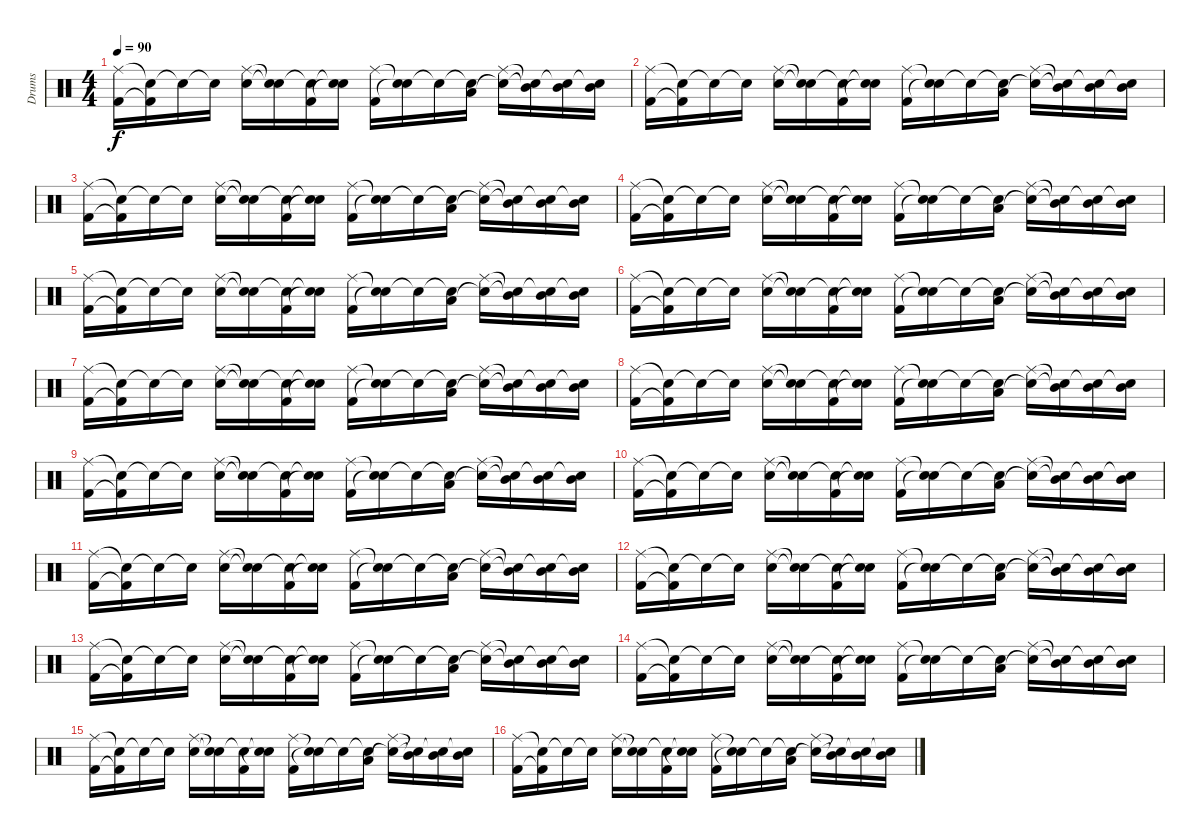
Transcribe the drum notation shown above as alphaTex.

\track ("Drums" "Drums") {instrument percussion}
\staff {score}
\articulation defaults
\ts (4 4)
\tempo 90
\clef neutral
\ks c
("Ride (middle)" "Kick (hit) 2").16{dy f} ("Snare (hit)"{t} "Kick (hit) 2"{t}).16 "Snare (hit)"{t}.16 "Snare (hit)"{t}.16 ("Ride (middle)" "Snare (hit) 2").16 ("Snare (hit)"{t} "Snare (hit)"{t}).16 ("Snare (hit)"{t} "Kick (hit) 2").16 ("Snare (hit)"{t} "Snare (hit)"{t}).16 ("Ride (middle)" "Kick (hit) 2").16 ("Snare (hit)"{t} "Snare (hit)"{t}).16 "Snare (hit)"{t}.16 ("Snare (hit)"{t} "Low Tom (hit)").16 ("Ride (middle)" "Snare (hit)"{t}).16 ("Snare (hit)"{t} "Mid Tom (hit)"{t}).16 ("Snare (hit)"{t} "Mid Tom (hit)").16 ("Snare (hit)"{t} "Mid Tom (hit)").16 |
("Ride (middle)" "Kick (hit) 2").16 ("Snare (hit)"{t} "Kick (hit) 2"{t}).16 "Snare (hit)"{t}.16 "Snare (hit)"{t}.16 ("Ride (middle)" "Snare (hit) 2").16 ("Snare (hit)"{t} "Snare (hit)"{t}).16 ("Snare (hit)"{t} "Kick (hit) 2").16 ("Snare (hit)"{t} "Snare (hit)"{t}).16 ("Ride (middle)" "Kick (hit) 2").16 ("Snare (hit)"{t} "Snare (hit)"{t}).16 "Snare (hit)"{t}.16 ("Snare (hit)"{t} "Low Tom (hit)").16 ("Ride (middle)" "Snare (hit)"{t}).16 ("Snare (hit)"{t} "Mid Tom (hit)"{t}).16 ("Snare (hit)"{t} "Mid Tom (hit)").16 ("Snare (hit)"{t} "Mid Tom (hit)").16 |
("Ride (middle)" "Kick (hit) 2").16 ("Snare (hit)"{t} "Kick (hit) 2"{t}).16 "Snare (hit)"{t}.16 "Snare (hit)"{t}.16 ("Ride (middle)" "Snare (hit) 2").16 ("Snare (hit)"{t} "Snare (hit)"{t}).16 ("Snare (hit)"{t} "Kick (hit) 2").16 ("Snare (hit)"{t} "Snare (hit)"{t}).16 ("Ride (middle)" "Kick (hit) 2").16 ("Snare (hit)"{t} "Snare (hit)"{t}).16 "Snare (hit)"{t}.16 ("Snare (hit)"{t} "Low Tom (hit)").16 ("Ride (middle)" "Snare (hit)"{t}).16 ("Snare (hit)"{t} "Mid Tom (hit)"{t}).16 ("Snare (hit)"{t} "Mid Tom (hit)").16 ("Snare (hit)"{t} "Mid Tom (hit)").16 |
("Ride (middle)" "Kick (hit) 2").16 ("Snare (hit)"{t} "Kick (hit) 2"{t}).16 "Snare (hit)"{t}.16 "Snare (hit)"{t}.16 ("Ride (middle)" "Snare (hit) 2").16 ("Snare (hit)"{t} "Snare (hit)"{t}).16 ("Snare (hit)"{t} "Kick (hit) 2").16 ("Snare (hit)"{t} "Snare (hit)"{t}).16 ("Ride (middle)" "Kick (hit) 2").16 ("Snare (hit)"{t} "Snare (hit)"{t}).16 "Snare (hit)"{t}.16 ("Snare (hit)"{t} "Low Tom (hit)").16 ("Ride (middle)" "Snare (hit)"{t}).16 ("Snare (hit)"{t} "Mid Tom (hit)"{t}).16 ("Snare (hit)"{t} "Mid Tom (hit)").16 ("Snare (hit)"{t} "Mid Tom (hit)").16 |
("Ride (middle)" "Kick (hit) 2").16 ("Snare (hit)"{t} "Kick (hit) 2"{t}).16 "Snare (hit)"{t}.16 "Snare (hit)"{t}.16 ("Ride (middle)" "Snare (hit) 2").16 ("Snare (hit)"{t} "Snare (hit)"{t}).16 ("Snare (hit)"{t} "Kick (hit) 2").16 ("Snare (hit)"{t} "Snare (hit)"{t}).16 ("Ride (middle)" "Kick (hit) 2").16 ("Snare (hit)"{t} "Snare (hit)"{t}).16 "Snare (hit)"{t}.16 ("Snare (hit)"{t} "Low Tom (hit)").16 ("Ride (middle)" "Snare (hit)"{t}).16 ("Snare (hit)"{t} "Mid Tom (hit)"{t}).16 ("Snare (hit)"{t} "Mid Tom (hit)").16 ("Snare (hit)"{t} "Mid Tom (hit)").16 |
("Ride (middle)" "Kick (hit) 2").16 ("Snare (hit)"{t} "Kick (hit) 2"{t}).16 "Snare (hit)"{t}.16 "Snare (hit)"{t}.16 ("Ride (middle)" "Snare (hit) 2").16 ("Snare (hit)"{t} "Snare (hit)"{t}).16 ("Snare (hit)"{t} "Kick (hit) 2").16 ("Snare (hit)"{t} "Snare (hit)"{t}).16 ("Ride (middle)" "Kick (hit) 2").16 ("Snare (hit)"{t} "Snare (hit)"{t}).16 "Snare (hit)"{t}.16 ("Snare (hit)"{t} "Low Tom (hit)").16 ("Ride (middle)" "Snare (hit)"{t}).16 ("Snare (hit)"{t} "Mid Tom (hit)"{t}).16 ("Snare (hit)"{t} "Mid Tom (hit)").16 ("Snare (hit)"{t} "Mid Tom (hit)").16 |
("Ride (middle)" "Kick (hit) 2").16 ("Snare (hit)"{t} "Kick (hit) 2"{t}).16 "Snare (hit)"{t}.16 "Snare (hit)"{t}.16 ("Ride (middle)" "Snare (hit) 2").16 ("Snare (hit)"{t} "Snare (hit)"{t}).16 ("Snare (hit)"{t} "Kick (hit) 2").16 ("Snare (hit)"{t} "Snare (hit)"{t}).16 ("Ride (middle)" "Kick (hit) 2").16 ("Snare (hit)"{t} "Snare (hit)"{t}).16 "Snare (hit)"{t}.16 ("Snare (hit)"{t} "Low Tom (hit)").16 ("Ride (middle)" "Snare (hit)"{t}).16 ("Snare (hit)"{t} "Mid Tom (hit)"{t}).16 ("Snare (hit)"{t} "Mid Tom (hit)").16 ("Snare (hit)"{t} "Mid Tom (hit)").16 |
("Ride (middle)" "Kick (hit) 2").16 ("Snare (hit)"{t} "Kick (hit) 2"{t}).16 "Snare (hit)"{t}.16 "Snare (hit)"{t}.16 ("Ride (middle)" "Snare (hit) 2").16 ("Snare (hit)"{t} "Snare (hit)"{t}).16 ("Snare (hit)"{t} "Kick (hit) 2").16 ("Snare (hit)"{t} "Snare (hit)"{t}).16 ("Ride (middle)" "Kick (hit) 2").16 ("Snare (hit)"{t} "Snare (hit)"{t}).16 "Snare (hit)"{t}.16 ("Snare (hit)"{t} "Low Tom (hit)").16 ("Ride (middle)" "Snare (hit)"{t}).16 ("Snare (hit)"{t} "Mid Tom (hit)"{t}).16 ("Snare (hit)"{t} "Mid Tom (hit)").16 ("Snare (hit)"{t} "Mid Tom (hit)").16 |
("Ride (middle)" "Kick (hit) 2").16 ("Snare (hit)"{t} "Kick (hit) 2"{t}).16 "Snare (hit)"{t}.16 "Snare (hit)"{t}.16 ("Ride (middle)" "Snare (hit) 2").16 ("Snare (hit)"{t} "Snare (hit)"{t}).16 ("Snare (hit)"{t} "Kick (hit) 2").16 ("Snare (hit)"{t} "Snare (hit)"{t}).16 ("Ride (middle)" "Kick (hit) 2").16 ("Snare (hit)"{t} "Snare (hit)"{t}).16 "Snare (hit)"{t}.16 ("Snare (hit)"{t} "Low Tom (hit)").16 ("Ride (middle)" "Snare (hit)"{t}).16 ("Snare (hit)"{t} "Mid Tom (hit)"{t}).16 ("Snare (hit)"{t} "Mid Tom (hit)").16 ("Snare (hit)"{t} "Mid Tom (hit)").16 |
("Ride (middle)" "Kick (hit) 2").16 ("Snare (hit)"{t} "Kick (hit) 2"{t}).16 "Snare (hit)"{t}.16 "Snare (hit)"{t}.16 ("Ride (middle)" "Snare (hit) 2").16 ("Snare (hit)"{t} "Snare (hit)"{t}).16 ("Snare (hit)"{t} "Kick (hit) 2").16 ("Snare (hit)"{t} "Snare (hit)"{t}).16 ("Ride (middle)" "Kick (hit) 2").16 ("Snare (hit)"{t} "Snare (hit)"{t}).16 "Snare (hit)"{t}.16 ("Snare (hit)"{t} "Low Tom (hit)").16 ("Ride (middle)" "Snare (hit)"{t}).16 ("Snare (hit)"{t} "Mid Tom (hit)"{t}).16 ("Snare (hit)"{t} "Mid Tom (hit)").16 ("Snare (hit)"{t} "Mid Tom (hit)").16 |
("Ride (middle)" "Kick (hit) 2").16 ("Snare (hit)"{t} "Kick (hit) 2"{t}).16 "Snare (hit)"{t}.16 "Snare (hit)"{t}.16 ("Ride (middle)" "Snare (hit) 2").16 ("Snare (hit)"{t} "Snare (hit)"{t}).16 ("Snare (hit)"{t} "Kick (hit) 2").16 ("Snare (hit)"{t} "Snare (hit)"{t}).16 ("Ride (middle)" "Kick (hit) 2").16 ("Snare (hit)"{t} "Snare (hit)"{t}).16 "Snare (hit)"{t}.16 ("Snare (hit)"{t} "Low Tom (hit)").16 ("Ride (middle)" "Snare (hit)"{t}).16 ("Snare (hit)"{t} "Mid Tom (hit)"{t}).16 ("Snare (hit)"{t} "Mid Tom (hit)").16 ("Snare (hit)"{t} "Mid Tom (hit)").16 |
("Ride (middle)" "Kick (hit) 2").16 ("Snare (hit)"{t} "Kick (hit) 2"{t}).16 "Snare (hit)"{t}.16 "Snare (hit)"{t}.16 ("Ride (middle)" "Snare (hit) 2").16 ("Snare (hit)"{t} "Snare (hit)"{t}).16 ("Snare (hit)"{t} "Kick (hit) 2").16 ("Snare (hit)"{t} "Snare (hit)"{t}).16 ("Ride (middle)" "Kick (hit) 2").16 ("Snare (hit)"{t} "Snare (hit)"{t}).16 "Snare (hit)"{t}.16 ("Snare (hit)"{t} "Low Tom (hit)").16 ("Ride (middle)" "Snare (hit)"{t}).16 ("Snare (hit)"{t} "Mid Tom (hit)"{t}).16 ("Snare (hit)"{t} "Mid Tom (hit)").16 ("Snare (hit)"{t} "Mid Tom (hit)").16 |
("Ride (middle)" "Kick (hit) 2").16 ("Snare (hit)"{t} "Kick (hit) 2"{t}).16 "Snare (hit)"{t}.16 "Snare (hit)"{t}.16 ("Ride (middle)" "Snare (hit) 2").16 ("Snare (hit)"{t} "Snare (hit)"{t}).16 ("Snare (hit)"{t} "Kick (hit) 2").16 ("Snare (hit)"{t} "Snare (hit)"{t}).16 ("Ride (middle)" "Kick (hit) 2").16 ("Snare (hit)"{t} "Snare (hit)"{t}).16 "Snare (hit)"{t}.16 ("Snare (hit)"{t} "Low Tom (hit)").16 ("Ride (middle)" "Snare (hit)"{t}).16 ("Snare (hit)"{t} "Mid Tom (hit)"{t}).16 ("Snare (hit)"{t} "Mid Tom (hit)").16 ("Snare (hit)"{t} "Mid Tom (hit)").16 |
("Ride (middle)" "Kick (hit) 2").16 ("Snare (hit)"{t} "Kick (hit) 2"{t}).16 "Snare (hit)"{t}.16 "Snare (hit)"{t}.16 ("Ride (middle)" "Snare (hit) 2").16 ("Snare (hit)"{t} "Snare (hit)"{t}).16 ("Snare (hit)"{t} "Kick (hit) 2").16 ("Snare (hit)"{t} "Snare (hit)"{t}).16 ("Ride (middle)" "Kick (hit) 2").16 ("Snare (hit)"{t} "Snare (hit)"{t}).16 "Snare (hit)"{t}.16 ("Snare (hit)"{t} "Low Tom (hit)").16 ("Ride (middle)" "Snare (hit)"{t}).16 ("Snare (hit)"{t} "Mid Tom (hit)"{t}).16 ("Snare (hit)"{t} "Mid Tom (hit)").16 ("Snare (hit)"{t} "Mid Tom (hit)").16 |
("Ride (middle)" "Kick (hit) 2").16 ("Snare (hit)"{t} "Kick (hit) 2"{t}).16 "Snare (hit)"{t}.16 "Snare (hit)"{t}.16 ("Ride (middle)" "Snare (hit) 2").16 ("Snare (hit)"{t} "Snare (hit)"{t}).16 ("Snare (hit)"{t} "Kick (hit) 2").16 ("Snare (hit)"{t} "Snare (hit)"{t}).16 ("Ride (middle)" "Kick (hit) 2").16 ("Snare (hit)"{t} "Snare (hit)"{t}).16 "Snare (hit)"{t}.16 ("Snare (hit)"{t} "Low Tom (hit)").16 ("Ride (middle)" "Snare (hit)"{t}).16 ("Snare (hit)"{t} "Mid Tom (hit)"{t}).16 ("Snare (hit)"{t} "Mid Tom (hit)").16 ("Snare (hit)"{t} "Mid Tom (hit)").16 |
("Ride (middle)" "Kick (hit) 2").16 ("Snare (hit)"{t} "Kick (hit) 2"{t}).16 "Snare (hit)"{t}.16 "Snare (hit)"{t}.16 ("Ride (middle)" "Snare (hit) 2").16 ("Snare (hit)"{t} "Snare (hit)"{t}).16 ("Snare (hit)"{t} "Kick (hit) 2").16 ("Snare (hit)"{t} "Snare (hit)"{t}).16 ("Ride (middle)" "Kick (hit) 2").16 ("Snare (hit)"{t} "Snare (hit)"{t}).16 "Snare (hit)"{t}.16 ("Snare (hit)"{t} "Low Tom (hit)").16 ("Ride (middle)" "Snare (hit)"{t}).16 ("Snare (hit)"{t} "Mid Tom (hit)"{t}).16 ("Snare (hit)"{t} "Mid Tom (hit)").16 ("Snare (hit)"{t} "Mid Tom (hit)").16
